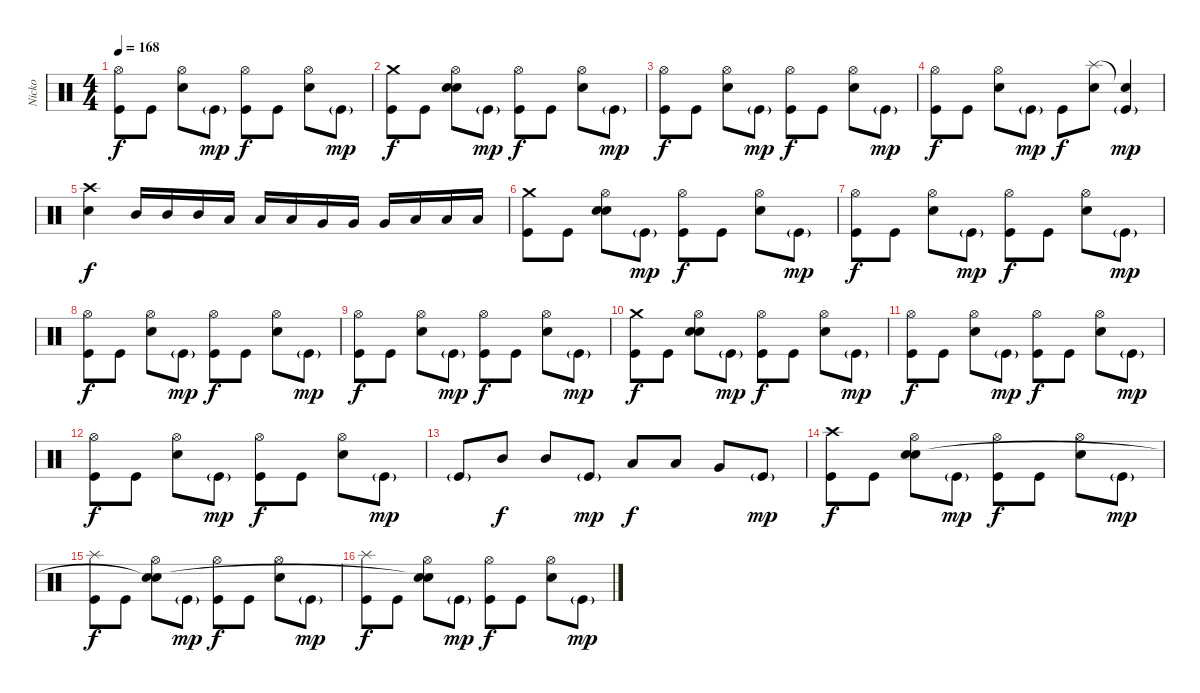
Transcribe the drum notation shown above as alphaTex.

\track ("Nicko" "Nicko") {instrument percussion}
\staff {score}
\articulation defaults
\ts (4 4)
\tempo 168
\clef neutral
\ks c
("Kick (hit)" "Hi-Hat (open)").8{dy f} "Kick (hit)".8 ("Electric Snare (hit)" "Hi-Hat (open)").8 "Kick (hit)"{g}.8{dy mp} ("Kick (hit)" "Hi-Hat (open)").8{dy f} "Kick (hit)".8 ("Electric Snare (hit)" "Hi-Hat (open)").8 "Kick (hit)"{g}.8{dy mp} |
("Kick (hit)" "Crash medium (hit)").8{dy f} "Kick (hit)".8 ("Electric Snare (hit)" "Hi-Hat (open)" "Snare (hit)").8 "Kick (hit)"{g}.8{dy mp} ("Kick (hit)" "Hi-Hat (open)").8{dy f} "Kick (hit)".8 ("Electric Snare (hit)" "Hi-Hat (open)").8 "Kick (hit)"{g}.8{dy mp} |
("Kick (hit)" "Hi-Hat (open)").8{dy f} "Kick (hit)".8 ("Electric Snare (hit)" "Hi-Hat (open)").8 "Kick (hit)"{g}.8{dy mp} ("Kick (hit)" "Hi-Hat (open)").8{dy f} "Kick (hit)".8 ("Electric Snare (hit)" "Hi-Hat (open)").8 "Kick (hit)"{g}.8{dy mp} |
("Kick (hit)" "Hi-Hat (open)").8{dy f} "Kick (hit)".8 ("Electric Snare (hit)" "Hi-Hat (open)").8 "Kick (hit)"{g}.8{dy mp} "Kick (hit)".8{dy f} ("Electric Snare (hit)" "Splash (hit)").8 ("Kick (hit)"{g} "Snare (hit)"{t}).4{dy mp} |
("Electric Snare (hit)" "Crash high (hit)").4{dy f} "Mid Tom (hit)".16{volume 12} "Mid Tom (hit)".16 "Mid Tom (hit)".16 "Low Tom (hit)".16 "Low Tom (hit)".16 "Low Tom (hit)".16 "Very Low Tom (hit)".16 "Very Low Tom (hit)".16 "Very Low Tom (hit)".16 "Low Floor Tom (hit)".16 "Low Floor Tom (hit)".16 "Low Floor Tom (hit)".16 |
("Kick (hit)" "Crash medium (hit)").8{volume 13} "Kick (hit)".8 ("Electric Snare (hit)" "Hi-Hat (open)" "Snare (hit)").8 "Kick (hit)"{g}.8{dy mp} ("Kick (hit)" "Hi-Hat (open)").8{dy f} "Kick (hit)".8 ("Electric Snare (hit)" "Hi-Hat (open)").8 "Kick (hit)"{g}.8{dy mp} |
("Kick (hit)" "Hi-Hat (open)").8{dy f} "Kick (hit)".8 ("Electric Snare (hit)" "Hi-Hat (open)").8 "Kick (hit)"{g}.8{dy mp} ("Kick (hit)" "Hi-Hat (open)").8{dy f} "Kick (hit)".8 ("Electric Snare (hit)" "Hi-Hat (open)").8 "Kick (hit)"{g}.8{dy mp} |
("Kick (hit)" "Hi-Hat (open)").8{dy f} "Kick (hit)".8 ("Electric Snare (hit)" "Hi-Hat (open)").8 "Kick (hit)"{g}.8{dy mp} ("Kick (hit)" "Hi-Hat (open)").8{dy f} "Kick (hit)".8 ("Electric Snare (hit)" "Hi-Hat (open)").8 "Kick (hit)"{g}.8{dy mp} |
("Kick (hit)" "Hi-Hat (open)").8{dy f} "Kick (hit)".8 ("Electric Snare (hit)" "Hi-Hat (open)").8 "Kick (hit)"{g}.8{dy mp} ("Kick (hit)" "Hi-Hat (open)").8{dy f} "Kick (hit)".8 ("Electric Snare (hit)" "Hi-Hat (open)").8 "Kick (hit)"{g}.8{dy mp} |
("Kick (hit)" "Crash medium (hit)").8{dy f} "Kick (hit)".8 ("Electric Snare (hit)" "Hi-Hat (open)" "Snare (hit)").8 "Kick (hit)"{g}.8{dy mp} ("Kick (hit)" "Hi-Hat (open)").8{dy f} "Kick (hit)".8 ("Electric Snare (hit)" "Hi-Hat (open)").8 "Kick (hit)"{g}.8{dy mp} |
("Kick (hit)" "Hi-Hat (open)").8{dy f} "Kick (hit)".8 ("Electric Snare (hit)" "Hi-Hat (open)").8 "Kick (hit)"{g}.8{dy mp} ("Kick (hit)" "Hi-Hat (open)").8{dy f} "Kick (hit)".8 ("Electric Snare (hit)" "Hi-Hat (open)").8 "Kick (hit)"{g}.8{dy mp} |
("Kick (hit)" "Hi-Hat (open)").8{dy f} "Kick (hit)".8 ("Electric Snare (hit)" "Hi-Hat (open)").8 "Kick (hit)"{g}.8{dy mp} ("Kick (hit)" "Hi-Hat (open)").8{dy f} "Kick (hit)".8 ("Electric Snare (hit)" "Hi-Hat (open)").8 "Kick (hit)"{g}.8{dy mp} |
"Kick (hit)"{g}.8 "Mid Tom (hit)".8{dy f} "Mid Tom (hit)".8 "Kick (hit)"{g}.8{dy mp} "Low Tom (hit)".8{dy f} "Low Tom (hit)".8 "Very Low Tom (hit)".8 "Kick (hit)"{g}.8{dy mp} |
("Kick (hit)" "Crash high (hit)").8{dy f} "Kick (hit)".8 ("Electric Snare (hit)" "Hi-Hat (open)" "Snare (hit)").8 "Kick (hit)"{g}.8{dy mp} ("Kick (hit)" "Hi-Hat (open)").8{dy f} "Kick (hit)".8 ("Electric Snare (hit)" "Hi-Hat (open)").8 "Kick (hit)"{g}.8{dy mp} |
("Kick (hit)" "Splash (hit)").8{dy f} "Kick (hit)".8 ("Electric Snare (hit)" "Hi-Hat (open)" "Snare (hit)"{t}).8 "Kick (hit)"{g}.8{dy mp} ("Kick (hit)" "Hi-Hat (open)").8{dy f} "Kick (hit)".8 ("Electric Snare (hit)" "Hi-Hat (open)").8 "Kick (hit)"{g}.8{dy mp} |
("Kick (hit)" "Splash (hit)").8{dy f} "Kick (hit)".8 ("Electric Snare (hit)" "Hi-Hat (open)" "Snare (hit)"{t}).8 "Kick (hit)"{g}.8{dy mp} ("Kick (hit)" "Hi-Hat (open)").8{dy f} "Kick (hit)".8 ("Electric Snare (hit)" "Hi-Hat (open)").8 "Kick (hit)"{g}.8{dy mp}
